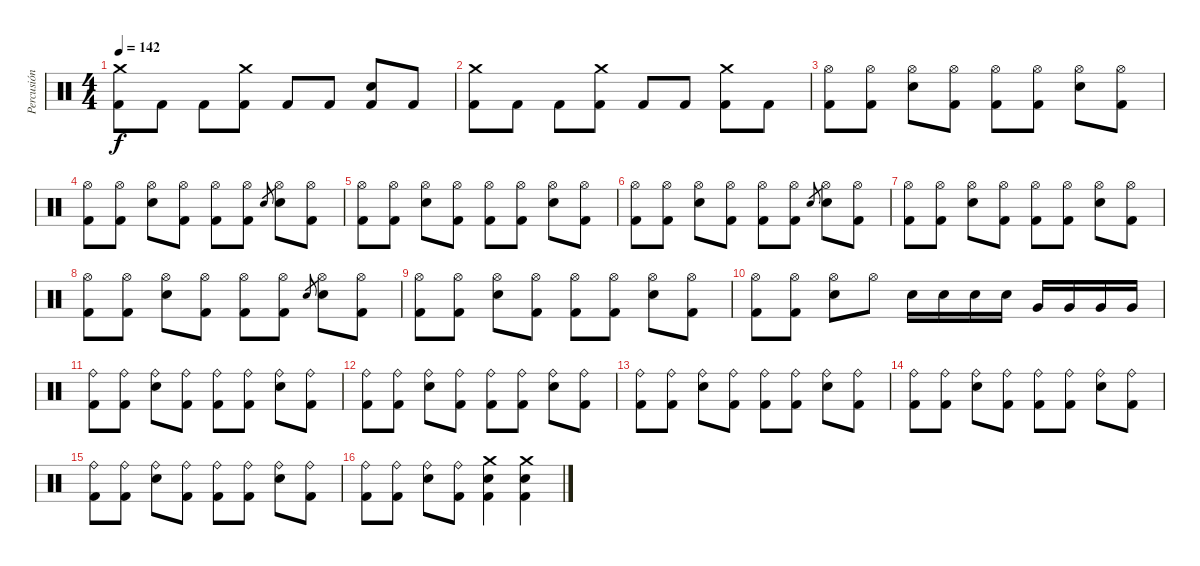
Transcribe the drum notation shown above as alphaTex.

\track ("Percusión" "Percusión") {instrument percussion}
\staff {score}
\articulation defaults
\ts (4 4)
\tempo 142
\clef neutral
\ks c
("Crash medium (hit)" "Kick (hit) 2").8{dy f} "Kick (hit) 2".8 "Kick (hit) 2".8 ("Crash medium (hit)" "Kick (hit) 2").8 "Kick (hit) 2".8 "Kick (hit) 2".8 ("Electric Snare (hit)" "Kick (hit) 2").8 "Kick (hit) 2".8 |
("Crash medium (hit)" "Kick (hit) 2").8 "Kick (hit) 2".8 "Kick (hit) 2".8 ("Crash medium (hit)" "Kick (hit) 2").8 "Kick (hit) 2".8 "Kick (hit) 2".8 ("Crash medium (hit)" "Kick (hit) 2").8 "Kick (hit) 2".8 |
("Hi-Hat (open)" "Kick (hit) 2").8 ("Hi-Hat (open)" "Kick (hit) 2").8 ("Hi-Hat (open)" "Electric Snare (hit)").8 ("Hi-Hat (open)" "Kick (hit) 2").8 ("Hi-Hat (open)" "Kick (hit) 2").8 ("Hi-Hat (open)" "Kick (hit) 2").8 ("Hi-Hat (open)" "Electric Snare (hit)").8 ("Hi-Hat (open)" "Kick (hit) 2").8 |
("Hi-Hat (open)" "Kick (hit) 2").8 ("Hi-Hat (open)" "Kick (hit) 2").8 ("Hi-Hat (open)" "Electric Snare (hit)").8 ("Hi-Hat (open)" "Kick (hit) 2").8 ("Hi-Hat (open)" "Kick (hit) 2").8 ("Hi-Hat (open)" "Kick (hit) 2").8 "Electric Snare (hit)".8{gr} ("Hi-Hat (open)" "Electric Snare (hit)").8 ("Hi-Hat (open)" "Kick (hit) 2").8 |
("Hi-Hat (open)" "Kick (hit) 2").8 ("Hi-Hat (open)" "Kick (hit) 2").8 ("Hi-Hat (open)" "Electric Snare (hit)").8 ("Hi-Hat (open)" "Kick (hit) 2").8 ("Hi-Hat (open)" "Kick (hit) 2").8 ("Hi-Hat (open)" "Kick (hit) 2").8 ("Hi-Hat (open)" "Electric Snare (hit)").8 ("Hi-Hat (open)" "Kick (hit) 2").8 |
("Hi-Hat (open)" "Kick (hit) 2").8 ("Hi-Hat (open)" "Kick (hit) 2").8 ("Hi-Hat (open)" "Electric Snare (hit)").8 ("Hi-Hat (open)" "Kick (hit) 2").8 ("Hi-Hat (open)" "Kick (hit) 2").8 ("Hi-Hat (open)" "Kick (hit) 2").8 "Electric Snare (hit)".8{gr} ("Hi-Hat (open)" "Electric Snare (hit)").8 ("Hi-Hat (open)" "Kick (hit) 2").8 |
("Hi-Hat (open)" "Kick (hit) 2").8 ("Hi-Hat (open)" "Kick (hit) 2").8 ("Hi-Hat (open)" "Electric Snare (hit)").8 ("Hi-Hat (open)" "Kick (hit) 2").8 ("Hi-Hat (open)" "Kick (hit) 2").8 ("Hi-Hat (open)" "Kick (hit) 2").8 ("Hi-Hat (open)" "Electric Snare (hit)").8 ("Hi-Hat (open)" "Kick (hit) 2").8 |
("Hi-Hat (open)" "Kick (hit) 2").8 ("Hi-Hat (open)" "Kick (hit) 2").8 ("Hi-Hat (open)" "Electric Snare (hit)").8 ("Hi-Hat (open)" "Kick (hit) 2").8 ("Hi-Hat (open)" "Kick (hit) 2").8 ("Hi-Hat (open)" "Kick (hit) 2").8 "Electric Snare (hit)".8{gr} ("Hi-Hat (open)" "Electric Snare (hit)").8 ("Hi-Hat (open)" "Kick (hit) 2").8 |
("Hi-Hat (open)" "Kick (hit) 2").8 ("Hi-Hat (open)" "Kick (hit) 2").8 ("Hi-Hat (open)" "Electric Snare (hit)").8 ("Hi-Hat (open)" "Kick (hit) 2").8 ("Hi-Hat (open)" "Kick (hit) 2").8 ("Hi-Hat (open)" "Kick (hit) 2").8 ("Hi-Hat (open)" "Electric Snare (hit)").8 ("Hi-Hat (open)" "Kick (hit) 2").8 |
("Hi-Hat (open)" "Kick (hit) 2").8 ("Hi-Hat (open)" "Kick (hit) 2").8 ("Hi-Hat (open)" "Electric Snare (hit)").8 "Hi-Hat (open)".8 "Electric Snare (hit)".16 "Electric Snare (hit)".16 "Electric Snare (hit)".16 "Electric Snare (hit)".16 "Very Low Tom (hit)".16 "Very Low Tom (hit)".16 "Very Low Tom (hit)".16 "Very Low Tom (hit)".16 |
("Ride (bell)" "Kick (hit) 2").8 ("Ride (bell)" "Kick (hit) 2").8 ("Ride (bell)" "Electric Snare (hit)").8 ("Ride (bell)" "Kick (hit) 2").8 ("Ride (bell)" "Kick (hit) 2").8 ("Ride (bell)" "Kick (hit) 2").8 ("Ride (bell)" "Electric Snare (hit)").8 ("Ride (bell)" "Kick (hit) 2").8 |
("Ride (bell)" "Kick (hit) 2").8 ("Ride (bell)" "Kick (hit) 2").8 ("Ride (bell)" "Electric Snare (hit)").8 ("Ride (bell)" "Kick (hit) 2").8 ("Ride (bell)" "Kick (hit) 2").8 ("Ride (bell)" "Kick (hit) 2").8 ("Ride (bell)" "Electric Snare (hit)").8 ("Ride (bell)" "Kick (hit) 2").8 |
("Ride (bell)" "Kick (hit) 2").8 ("Ride (bell)" "Kick (hit) 2").8 ("Ride (bell)" "Electric Snare (hit)").8 ("Ride (bell)" "Kick (hit) 2").8 ("Ride (bell)" "Kick (hit) 2").8 ("Ride (bell)" "Kick (hit) 2").8 ("Ride (bell)" "Electric Snare (hit)").8 ("Ride (bell)" "Kick (hit) 2").8 |
("Ride (bell)" "Kick (hit) 2").8 ("Ride (bell)" "Kick (hit) 2").8 ("Ride (bell)" "Electric Snare (hit)").8 ("Ride (bell)" "Kick (hit) 2").8 ("Ride (bell)" "Kick (hit) 2").8 ("Ride (bell)" "Kick (hit) 2").8 ("Ride (bell)" "Electric Snare (hit)").8 ("Ride (bell)" "Kick (hit) 2").8 |
("Ride (bell)" "Kick (hit) 2").8 ("Ride (bell)" "Kick (hit) 2").8 ("Ride (bell)" "Electric Snare (hit)").8 ("Ride (bell)" "Kick (hit) 2").8 ("Ride (bell)" "Kick (hit) 2").8 ("Ride (bell)" "Kick (hit) 2").8 ("Ride (bell)" "Electric Snare (hit)").8 ("Ride (bell)" "Kick (hit) 2").8 |
("Ride (bell)" "Kick (hit) 2").8 ("Ride (bell)" "Kick (hit) 2").8 ("Ride (bell)" "Electric Snare (hit)").8 ("Ride (bell)" "Kick (hit) 2").8 ("Crash medium (hit)" "Electric Snare (hit)" "Kick (hit) 2").4 ("Crash medium (hit)" "Electric Snare (hit)" "Kick (hit) 2").4
